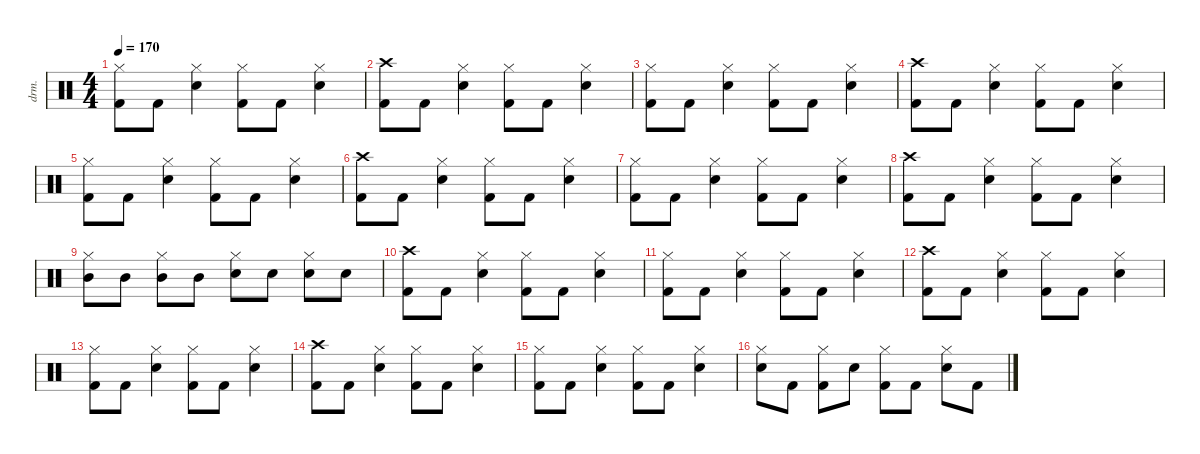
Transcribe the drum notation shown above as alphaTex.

\defaultSystemsLayout 4
\hideDynamics
\bracketExtendMode nobrackets
\otherSystemsTrackNameOrientation horizontal
\track ("Percussion" "drm.") {instrument percussion}
\staff {score}
\articulation defaults
\ts (4 4)
\tempo 170
\clef neutral
\ks c
("Hi-Hat (closed)" "Kick (hit) 2").8{dy f beam Down} "Kick (hit) 2".8{beam Down} ("Hi-Hat (closed)" "Snare (hit) 2").4{beam Down} ("Hi-Hat (closed)" "Kick (hit) 2").8{beam Down} "Kick (hit) 2".8{beam Down} ("Hi-Hat (closed)" "Snare (hit) 2").4{beam Down} |
("Crash high (hit)" "Kick (hit) 2").8{beam Down} "Kick (hit) 2".8{beam Down} ("Hi-Hat (closed)" "Snare (hit) 2").4{beam Down} ("Hi-Hat (closed)" "Kick (hit) 2").8{beam Down} "Kick (hit) 2".8{beam Down} ("Hi-Hat (closed)" "Snare (hit) 2").4{beam Down} |
("Hi-Hat (closed)" "Kick (hit) 2").8{beam Down} "Kick (hit) 2".8{beam Down} ("Hi-Hat (closed)" "Snare (hit) 2").4{beam Down} ("Hi-Hat (closed)" "Kick (hit) 2").8{beam Down} "Kick (hit) 2".8{beam Down} ("Hi-Hat (closed)" "Snare (hit) 2").4{beam Down} |
("Crash high (hit)" "Kick (hit) 2").8{beam Down} "Kick (hit) 2".8{beam Down} ("Hi-Hat (closed)" "Snare (hit) 2").4{beam Down} ("Hi-Hat (closed)" "Kick (hit) 2").8{beam Down} "Kick (hit) 2".8{beam Down} ("Hi-Hat (closed)" "Snare (hit) 2").4{beam Down} |
("Hi-Hat (closed)" "Kick (hit) 2").8{beam Down} "Kick (hit) 2".8{beam Down} ("Hi-Hat (closed)" "Snare (hit) 2").4{beam Down} ("Hi-Hat (closed)" "Kick (hit) 2").8{beam Down} "Kick (hit) 2".8{beam Down} ("Hi-Hat (closed)" "Snare (hit) 2").4{beam Down} |
("Crash high (hit)" "Kick (hit) 2").8{beam Down} "Kick (hit) 2".8{beam Down} ("Hi-Hat (closed)" "Snare (hit) 2").4{beam Down} ("Hi-Hat (closed)" "Kick (hit) 2").8{beam Down} "Kick (hit) 2".8{beam Down} ("Hi-Hat (closed)" "Snare (hit) 2").4{beam Down} |
("Hi-Hat (closed)" "Kick (hit) 2").8{beam Down} "Kick (hit) 2".8{beam Down} ("Hi-Hat (closed)" "Snare (hit) 2").4{beam Down} ("Hi-Hat (closed)" "Kick (hit) 2").8{beam Down} "Kick (hit) 2".8{beam Down} ("Hi-Hat (closed)" "Snare (hit) 2").4{beam Down} |
("Crash high (hit)" "Kick (hit) 2").8{beam Down} "Kick (hit) 2".8{beam Down} ("Hi-Hat (closed)" "Snare (hit) 2").4{beam Down} ("Hi-Hat (closed)" "Kick (hit) 2").8{beam Down} "Kick (hit) 2".8{beam Down} ("Hi-Hat (closed)" "Snare (hit) 2").4{beam Down} |
("Hi-Hat (closed)" "Mid Tom (hit)").8{beam Down} "Mid Tom (hit)".8{beam Down} ("Hi-Hat (closed)" "Mid Tom (hit)").8{beam Down} "Mid Tom (hit)".8{beam Down} ("Hi-Hat (closed)" "Snare (hit) 2").8{beam Down} "Snare (hit) 2".8{beam Down} ("Hi-Hat (closed)" "Snare (hit) 2").8{beam Down} "Snare (hit) 2".8{beam Down} |
("Crash high (hit)" "Kick (hit) 2").8{beam Down} "Kick (hit) 2".8{beam Down} ("Hi-Hat (closed)" "Snare (hit) 2").4{beam Down} ("Hi-Hat (closed)" "Kick (hit) 2").8{beam Down} "Kick (hit) 2".8{beam Down} ("Hi-Hat (closed)" "Snare (hit) 2").4{beam Down} |
("Hi-Hat (closed)" "Kick (hit) 2").8{beam Down} "Kick (hit) 2".8{beam Down} ("Hi-Hat (closed)" "Snare (hit) 2").4{beam Down} ("Hi-Hat (closed)" "Kick (hit) 2").8{beam Down} "Kick (hit) 2".8{beam Down} ("Hi-Hat (closed)" "Snare (hit) 2").4{beam Down} |
("Crash high (hit)" "Kick (hit) 2").8{beam Down} "Kick (hit) 2".8{beam Down} ("Hi-Hat (closed)" "Snare (hit) 2").4{beam Down} ("Hi-Hat (closed)" "Kick (hit) 2").8{beam Down} "Kick (hit) 2".8{beam Down} ("Hi-Hat (closed)" "Snare (hit) 2").4{beam Down} |
("Hi-Hat (closed)" "Kick (hit) 2").8{beam Down} "Kick (hit) 2".8{beam Down} ("Hi-Hat (closed)" "Snare (hit) 2").4{beam Down} ("Hi-Hat (closed)" "Kick (hit) 2").8{beam Down} "Kick (hit) 2".8{beam Down} ("Hi-Hat (closed)" "Snare (hit) 2").4{beam Down} |
("Crash high (hit)" "Kick (hit) 2").8{beam Down} "Kick (hit) 2".8{beam Down} ("Hi-Hat (closed)" "Snare (hit) 2").4{beam Down} ("Hi-Hat (closed)" "Kick (hit) 2").8{beam Down} "Kick (hit) 2".8{beam Down} ("Hi-Hat (closed)" "Snare (hit) 2").4{beam Down} |
("Hi-Hat (closed)" "Kick (hit) 2").8{beam Down} "Kick (hit) 2".8{beam Down} ("Hi-Hat (closed)" "Snare (hit) 2").4{beam Down} ("Hi-Hat (closed)" "Kick (hit) 2").8{beam Down} "Kick (hit) 2".8{beam Down} ("Hi-Hat (closed)" "Snare (hit) 2").4{beam Down} |
("Hi-Hat (closed)" "Snare (hit) 2").8{beam Down} "Kick (hit) 2".8{beam Down} ("Hi-Hat (closed)" "Kick (hit) 2").8{beam Down} "Snare (hit) 2".8{beam Down} ("Hi-Hat (closed)" "Kick (hit) 2").8{beam Down} "Kick (hit) 2".8{beam Down} ("Hi-Hat (closed)" "Snare (hit) 2").8{beam Down} "Kick (hit) 2".8{beam Down}
